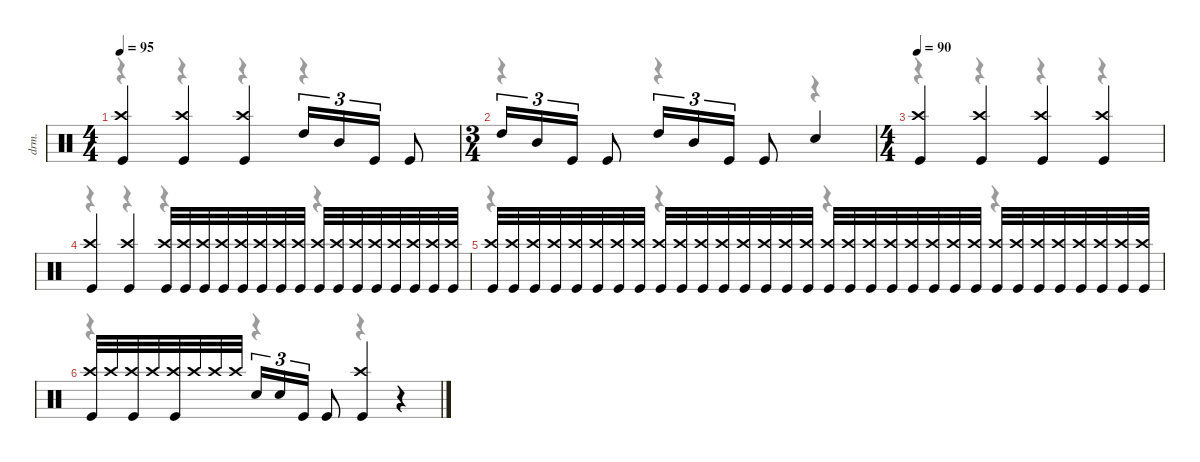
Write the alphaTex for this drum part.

\defaultSystemsLayout 4
\hideDynamics
\bracketExtendMode nobrackets
\track ("Drumkit" "drm.") {instrument percussion}
\staff {score}
\articulation defaults
\voice
\ts (4 4)
\tempo 95
\clef neutral
\ks c
("Crash high (hit)" "Kick (hit)").4{dy f} ("Crash high (hit)" "Kick (hit)").4 ("Kick (hit)" "Crash high (hit)").4 "High Tom (hit)".16{tu (3 2)} "Mid Tom (hit)".16{tu (3 2)} "Kick (hit)".16{tu (3 2)} "Kick (hit)".8 |
\ts (3 4)
\beaming (8 2 2 2 2)
"High Tom (hit)".16{tu (3 2)} "Mid Tom (hit)".16{tu (3 2)} "Kick (hit)".16{tu (3 2)} "Kick (hit)".8 "High Tom (hit)".16{tu (3 2)} "Mid Tom (hit)".16{tu (3 2)} "Kick (hit)".16{tu (3 2)} "Kick (hit)".8 "Snare (hit) 2".4{dy ff} |
\ts (4 4)
\beaming (8 2 2 2 2)
\tempo 90
("Crash high (hit)" "Kick (hit)").4{dy f} ("Crash high (hit)" "Kick (hit)").4 ("Crash high (hit)" "Kick (hit)").4 ("Crash high (hit)" "Kick (hit)").4 |
("Crash high (hit)" "Kick (hit)").4 ("Crash high (hit)" "Kick (hit)").4 ("Kick (hit)" "Crash high (hit)").32 ("Kick (hit)" "Crash high (hit)").32 ("Kick (hit)" "Crash high (hit)").32 ("Kick (hit)" "Crash high (hit)").32 ("Kick (hit)" "Crash high (hit)").32 ("Kick (hit)" "Crash high (hit)").32 ("Kick (hit)" "Crash high (hit)").32 ("Kick (hit)" "Crash high (hit)").32 ("Crash high (hit)" "Kick (hit)").32{dy mf} ("Kick (hit)" "Crash high (hit)").32{dy f} ("Kick (hit)" "Crash high (hit)").32 ("Crash high (hit)" "Kick (hit)").32{dy mf} ("Crash high (hit)" "Kick (hit)").32 ("Kick (hit)" "Crash high (hit)").32{dy f} ("Kick (hit)" "Crash high (hit)").32 ("Crash high (hit)" "Kick (hit)").32{dy mf} |
("Crash high (hit)" "Kick (hit)").32 ("Kick (hit)" "Crash high (hit)").32{dy f} ("Kick (hit)" "Crash high (hit)").32 ("Crash high (hit)" "Kick (hit)").32{dy mf} ("Crash high (hit)" "Kick (hit)").32 ("Kick (hit)" "Crash high (hit)").32{dy f} ("Kick (hit)" "Crash high (hit)").32 ("Crash high (hit)" "Kick (hit)").32{dy mf} ("Crash high (hit)" "Kick (hit)").32 ("Kick (hit)" "Crash high (hit)").32{dy f} ("Kick (hit)" "Crash high (hit)").32 ("Crash high (hit)" "Kick (hit)").32{dy mf} ("Crash high (hit)" "Kick (hit)").32 ("Kick (hit)" "Crash high (hit)").32{dy f} ("Kick (hit)" "Crash high (hit)").32 ("Crash high (hit)" "Kick (hit)").32{dy mf} ("Crash high (hit)" "Kick (hit)").32 ("Kick (hit)" "Crash high (hit)").32{dy f} ("Kick (hit)" "Crash high (hit)").32 ("Crash high (hit)" "Kick (hit)").32{dy mf} ("Crash high (hit)" "Kick (hit)").32 ("Kick (hit)" "Crash high (hit)").32{dy f} ("Kick (hit)" "Crash high (hit)").32 ("Crash high (hit)" "Kick (hit)").32{dy mf} ("Crash high (hit)" "Kick (hit)").32 ("Kick (hit)" "Crash high (hit)").32{dy f} ("Kick (hit)" "Crash high (hit)").32 ("Crash high (hit)" "Kick (hit)").32{dy mf} ("Crash high (hit)" "Kick (hit)").32 ("Kick (hit)" "Crash high (hit)").32{dy f} ("Kick (hit)" "Crash high (hit)").32 ("Crash high (hit)" "Kick (hit)").32{dy mf} |
("Kick (hit)" "Crash high (hit)").32{dy f} "Crash high (hit)".32{dy mf} ("Kick (hit)" "Crash high (hit)").32{dy f} "Crash high (hit)".32{dy mf} ("Kick (hit)" "Crash high (hit)").32{dy f} "Crash high (hit)".32{dy mf} "Crash high (hit)".32 "Crash high (hit)".32 "Snare (hit) 2".16{tu (3 2) dy f} "Snare (hit) 2".16{tu (3 2)} "Kick (hit)".16{tu (3 2)} "Kick (hit)".8 ("Crash high (hit)" "Kick (hit)").4 r.4
\voice
\clef neutral
\ottava regular
\simile none
\ks c
r.4{dy mf} r.4 r.4 r.4 |
r.4 r.4 r.4 |
r.4 r.4 r.4 r.4 |
r.4 r.4 r.4 r.4 |
r.4 r.4 r.4 r.4 |
r.4 r.4 r.4 r.4
